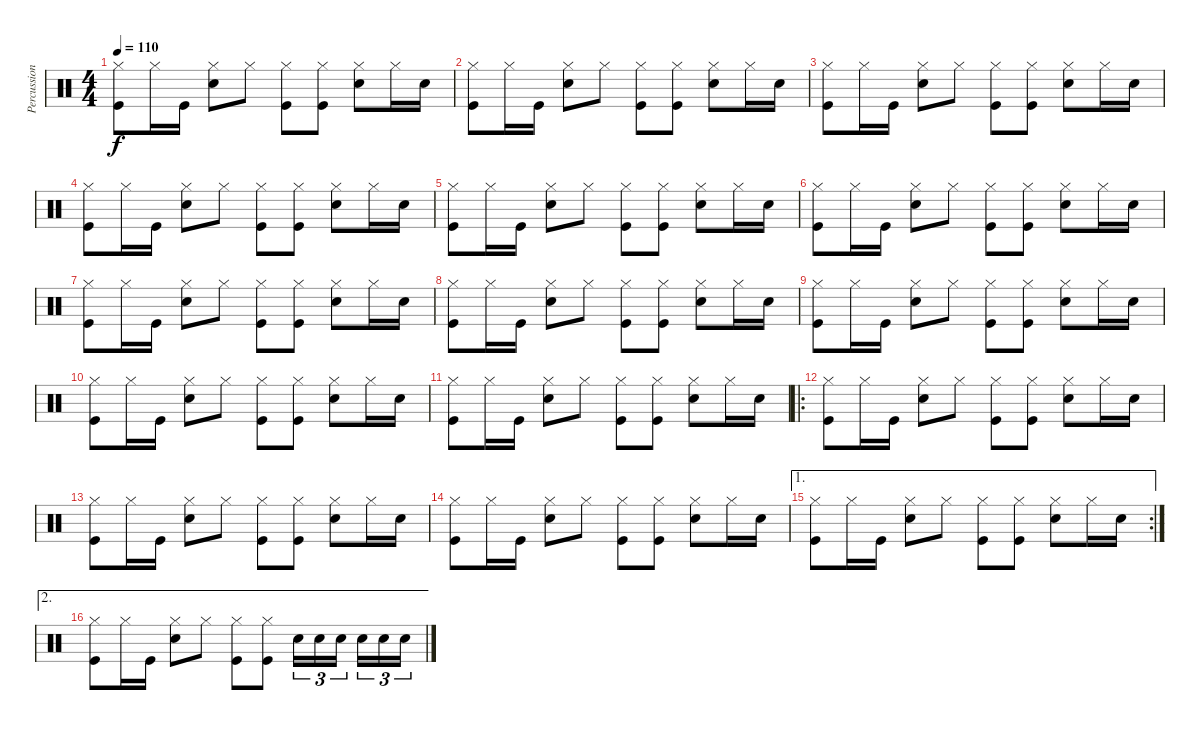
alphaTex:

\track ("Percussion" "Percussion") {instrument percussion}
\staff {score}
\articulation defaults
\ts (4 4)
\tempo 110
\clef neutral
\ks c
("Hi-Hat (closed)" "Kick (hit)").8{dy f} "Hi-Hat (closed)".16 "Kick (hit)".16 ("Hi-Hat (closed)" "Snare (hit) 2").8 "Hi-Hat (closed)".8 ("Hi-Hat (closed)" "Kick (hit)").8 ("Hi-Hat (closed)" "Kick (hit)").8 ("Hi-Hat (closed)" "Snare (hit) 2").8 "Hi-Hat (closed)".16 "Snare (hit) 2".16 |
("Hi-Hat (closed)" "Kick (hit)").8 "Hi-Hat (closed)".16 "Kick (hit)".16 ("Hi-Hat (closed)" "Snare (hit) 2").8 "Hi-Hat (closed)".8 ("Hi-Hat (closed)" "Kick (hit)").8 ("Hi-Hat (closed)" "Kick (hit)").8 ("Hi-Hat (closed)" "Snare (hit) 2").8 "Hi-Hat (closed)".16 "Snare (hit) 2".16 |
("Hi-Hat (closed)" "Kick (hit)").8 "Hi-Hat (closed)".16 "Kick (hit)".16 ("Hi-Hat (closed)" "Snare (hit) 2").8 "Hi-Hat (closed)".8 ("Hi-Hat (closed)" "Kick (hit)").8 ("Hi-Hat (closed)" "Kick (hit)").8 ("Hi-Hat (closed)" "Snare (hit) 2").8 "Hi-Hat (closed)".16 "Snare (hit) 2".16 |
("Hi-Hat (closed)" "Kick (hit)").8 "Hi-Hat (closed)".16 "Kick (hit)".16 ("Hi-Hat (closed)" "Snare (hit) 2").8 "Hi-Hat (closed)".8 ("Hi-Hat (closed)" "Kick (hit)").8 ("Hi-Hat (closed)" "Kick (hit)").8 ("Hi-Hat (closed)" "Snare (hit) 2").8 "Hi-Hat (closed)".16 "Snare (hit) 2".16 |
("Hi-Hat (closed)" "Kick (hit)").8 "Hi-Hat (closed)".16 "Kick (hit)".16 ("Hi-Hat (closed)" "Snare (hit) 2").8 "Hi-Hat (closed)".8 ("Hi-Hat (closed)" "Kick (hit)").8 ("Hi-Hat (closed)" "Kick (hit)").8 ("Hi-Hat (closed)" "Snare (hit) 2").8 "Hi-Hat (closed)".16 "Snare (hit) 2".16 |
("Hi-Hat (closed)" "Kick (hit)").8 "Hi-Hat (closed)".16 "Kick (hit)".16 ("Hi-Hat (closed)" "Snare (hit) 2").8 "Hi-Hat (closed)".8 ("Hi-Hat (closed)" "Kick (hit)").8 ("Hi-Hat (closed)" "Kick (hit)").8 ("Hi-Hat (closed)" "Snare (hit) 2").8 "Hi-Hat (closed)".16 "Snare (hit) 2".16 |
("Hi-Hat (closed)" "Kick (hit)").8 "Hi-Hat (closed)".16 "Kick (hit)".16 ("Hi-Hat (closed)" "Snare (hit) 2").8 "Hi-Hat (closed)".8 ("Hi-Hat (closed)" "Kick (hit)").8 ("Hi-Hat (closed)" "Kick (hit)").8 ("Hi-Hat (closed)" "Snare (hit) 2").8 "Hi-Hat (closed)".16 "Snare (hit) 2".16 |
("Hi-Hat (closed)" "Kick (hit)").8 "Hi-Hat (closed)".16 "Kick (hit)".16 ("Hi-Hat (closed)" "Snare (hit) 2").8 "Hi-Hat (closed)".8 ("Hi-Hat (closed)" "Kick (hit)").8 ("Hi-Hat (closed)" "Kick (hit)").8 ("Hi-Hat (closed)" "Snare (hit) 2").8 "Hi-Hat (closed)".16 "Snare (hit) 2".16 |
("Hi-Hat (closed)" "Kick (hit)").8 "Hi-Hat (closed)".16 "Kick (hit)".16 ("Hi-Hat (closed)" "Snare (hit) 2").8 "Hi-Hat (closed)".8 ("Hi-Hat (closed)" "Kick (hit)").8 ("Hi-Hat (closed)" "Kick (hit)").8 ("Hi-Hat (closed)" "Snare (hit) 2").8 "Hi-Hat (closed)".16 "Snare (hit) 2".16 |
("Hi-Hat (closed)" "Kick (hit)").8 "Hi-Hat (closed)".16 "Kick (hit)".16 ("Hi-Hat (closed)" "Snare (hit) 2").8 "Hi-Hat (closed)".8 ("Hi-Hat (closed)" "Kick (hit)").8 ("Hi-Hat (closed)" "Kick (hit)").8 ("Hi-Hat (closed)" "Snare (hit) 2").8 "Hi-Hat (closed)".16 "Snare (hit) 2".16 |
("Hi-Hat (closed)" "Kick (hit)").8 "Hi-Hat (closed)".16 "Kick (hit)".16 ("Hi-Hat (closed)" "Snare (hit) 2").8 "Hi-Hat (closed)".8 ("Hi-Hat (closed)" "Kick (hit)").8 ("Hi-Hat (closed)" "Kick (hit)").8 ("Hi-Hat (closed)" "Snare (hit) 2").8 "Hi-Hat (closed)".16 "Snare (hit) 2".16 |
\ro
("Hi-Hat (closed)" "Kick (hit)").8 "Hi-Hat (closed)".16 "Kick (hit)".16 ("Hi-Hat (closed)" "Snare (hit) 2").8 "Hi-Hat (closed)".8 ("Hi-Hat (closed)" "Kick (hit)").8 ("Hi-Hat (closed)" "Kick (hit)").8 ("Hi-Hat (closed)" "Snare (hit) 2").8 "Hi-Hat (closed)".16 "Snare (hit) 2".16 |
("Hi-Hat (closed)" "Kick (hit)").8 "Hi-Hat (closed)".16 "Kick (hit)".16 ("Hi-Hat (closed)" "Snare (hit) 2").8 "Hi-Hat (closed)".8 ("Hi-Hat (closed)" "Kick (hit)").8 ("Hi-Hat (closed)" "Kick (hit)").8 ("Hi-Hat (closed)" "Snare (hit) 2").8 "Hi-Hat (closed)".16 "Snare (hit) 2".16 |
("Hi-Hat (closed)" "Kick (hit)").8 "Hi-Hat (closed)".16 "Kick (hit)".16 ("Hi-Hat (closed)" "Snare (hit) 2").8 "Hi-Hat (closed)".8 ("Hi-Hat (closed)" "Kick (hit)").8 ("Hi-Hat (closed)" "Kick (hit)").8 ("Hi-Hat (closed)" "Snare (hit) 2").8 "Hi-Hat (closed)".16 "Snare (hit) 2".16 |
\ae 1
\rc 2
("Hi-Hat (closed)" "Kick (hit)").8 "Hi-Hat (closed)".16 "Kick (hit)".16 ("Hi-Hat (closed)" "Snare (hit) 2").8 "Hi-Hat (closed)".8 ("Hi-Hat (closed)" "Kick (hit)").8 ("Hi-Hat (closed)" "Kick (hit)").8 ("Hi-Hat (closed)" "Snare (hit) 2").8 "Hi-Hat (closed)".16 "Snare (hit) 2".16 |
\ae 2
("Hi-Hat (closed)" "Kick (hit)").8 "Hi-Hat (closed)".16 "Kick (hit)".16 ("Hi-Hat (closed)" "Snare (hit) 2").8 "Hi-Hat (closed)".8 ("Hi-Hat (closed)" "Kick (hit)").8 ("Hi-Hat (closed)" "Kick (hit)").8 "Snare (hit) 2".16{tu (3 2)} "Snare (hit) 2".16{tu (3 2)} "Snare (hit) 2".16{tu (3 2)} "Snare (hit) 2".16{tu (3 2)} "Snare (hit) 2".16{tu (3 2)} "Snare (hit) 2".16{tu (3 2)}
